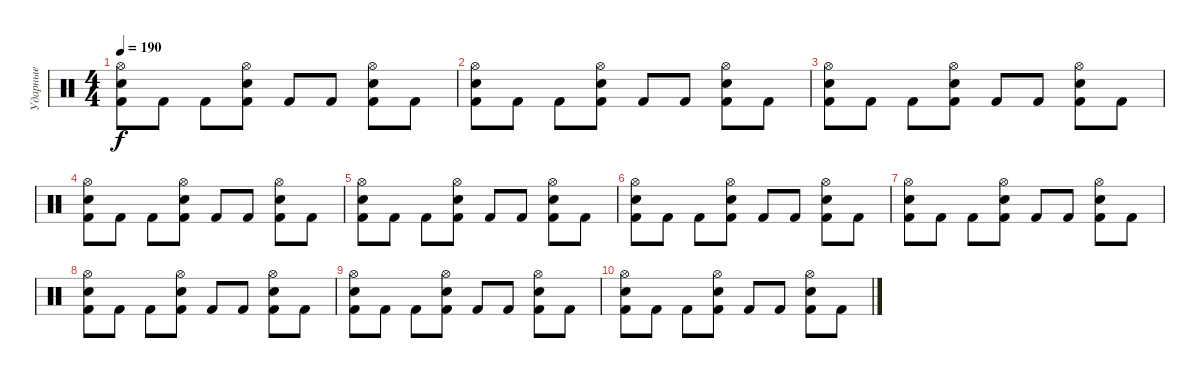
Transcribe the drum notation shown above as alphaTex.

\track ("Ударные" "Ударные") {instrument percussion}
\staff {score}
\articulation defaults
\ts (4 4)
\tempo 190
\clef neutral
\ks c
("Kick (hit) 2" "Snare (hit) 2" "Hi-Hat (open)").8{dy f} "Kick (hit) 2".8 "Kick (hit) 2".8 ("Kick (hit) 2" "Snare (hit) 2" "Hi-Hat (open)").8 "Kick (hit) 2".8 "Kick (hit) 2".8 ("Kick (hit) 2" "Snare (hit) 2" "Hi-Hat (open)").8 "Kick (hit) 2".8 |
("Kick (hit) 2" "Snare (hit) 2" "Hi-Hat (open)").8 "Kick (hit) 2".8 "Kick (hit) 2".8 ("Kick (hit) 2" "Snare (hit) 2" "Hi-Hat (open)").8 "Kick (hit) 2".8 "Kick (hit) 2".8 ("Kick (hit) 2" "Snare (hit) 2" "Hi-Hat (open)").8 "Kick (hit) 2".8 |
("Kick (hit) 2" "Snare (hit) 2" "Hi-Hat (open)").8 "Kick (hit) 2".8 "Kick (hit) 2".8 ("Kick (hit) 2" "Snare (hit) 2" "Hi-Hat (open)").8 "Kick (hit) 2".8 "Kick (hit) 2".8 ("Kick (hit) 2" "Snare (hit) 2" "Hi-Hat (open)").8 "Kick (hit) 2".8 |
("Kick (hit) 2" "Snare (hit) 2" "Hi-Hat (open)").8 "Kick (hit) 2".8 "Kick (hit) 2".8 ("Kick (hit) 2" "Snare (hit) 2" "Hi-Hat (open)").8 "Kick (hit) 2".8 "Kick (hit) 2".8 ("Kick (hit) 2" "Snare (hit) 2" "Hi-Hat (open)").8 "Kick (hit) 2".8 |
("Kick (hit) 2" "Snare (hit) 2" "Hi-Hat (open)").8 "Kick (hit) 2".8 "Kick (hit) 2".8 ("Kick (hit) 2" "Snare (hit) 2" "Hi-Hat (open)").8 "Kick (hit) 2".8 "Kick (hit) 2".8 ("Kick (hit) 2" "Snare (hit) 2" "Hi-Hat (open)").8 "Kick (hit) 2".8 |
("Kick (hit) 2" "Snare (hit) 2" "Hi-Hat (open)").8 "Kick (hit) 2".8 "Kick (hit) 2".8 ("Kick (hit) 2" "Snare (hit) 2" "Hi-Hat (open)").8 "Kick (hit) 2".8 "Kick (hit) 2".8 ("Kick (hit) 2" "Snare (hit) 2" "Hi-Hat (open)").8 "Kick (hit) 2".8 |
("Kick (hit) 2" "Snare (hit) 2" "Hi-Hat (open)").8 "Kick (hit) 2".8 "Kick (hit) 2".8 ("Kick (hit) 2" "Snare (hit) 2" "Hi-Hat (open)").8 "Kick (hit) 2".8 "Kick (hit) 2".8 ("Kick (hit) 2" "Snare (hit) 2" "Hi-Hat (open)").8 "Kick (hit) 2".8 |
("Kick (hit) 2" "Snare (hit) 2" "Hi-Hat (open)").8 "Kick (hit) 2".8 "Kick (hit) 2".8 ("Kick (hit) 2" "Snare (hit) 2" "Hi-Hat (open)").8 "Kick (hit) 2".8 "Kick (hit) 2".8 ("Kick (hit) 2" "Snare (hit) 2" "Hi-Hat (open)").8 "Kick (hit) 2".8 |
("Kick (hit) 2" "Snare (hit) 2" "Hi-Hat (open)").8 "Kick (hit) 2".8 "Kick (hit) 2".8 ("Kick (hit) 2" "Snare (hit) 2" "Hi-Hat (open)").8 "Kick (hit) 2".8 "Kick (hit) 2".8 ("Kick (hit) 2" "Snare (hit) 2" "Hi-Hat (open)").8 "Kick (hit) 2".8 |
("Kick (hit) 2" "Snare (hit) 2" "Hi-Hat (open)").8 "Kick (hit) 2".8 "Kick (hit) 2".8 ("Kick (hit) 2" "Snare (hit) 2" "Hi-Hat (open)").8 "Kick (hit) 2".8 "Kick (hit) 2".8 ("Kick (hit) 2" "Snare (hit) 2" "Hi-Hat (open)").8 "Kick (hit) 2".8
